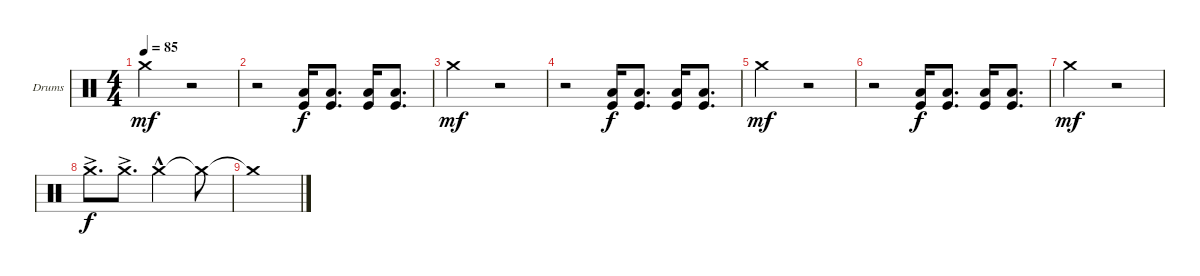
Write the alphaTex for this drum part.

\defaultSystemsLayout 4
\bracketExtendMode groupsimilarinstruments
\firstSystemTrackNameOrientation horizontal
\otherSystemsTrackNameOrientation horizontal
\track ("Drumkit" "Drums") {instrument percussion}
\staff {score}
\articulation defaults
\ts (4 4)
\tempo 85
\clef neutral
\ks c "Crash medium (hit)".2{dy mf}
r.2 |
r.2 ("Low Tom (hit)" "Kick (hit)").16{dy f} ("Low Tom (hit)" "Kick (hit)").8{d} ("Low Tom (hit)" "Kick (hit)").16 ("Low Tom (hit)" "Kick (hit)").8{d} |
"Crash medium (hit)".2{dy mf} r.2 |
r.2 ("Low Tom (hit)" "Kick (hit)").16{dy f} ("Low Tom (hit)" "Kick (hit)").8{d} ("Low Tom (hit)" "Kick (hit)").16 ("Low Tom (hit)" "Kick (hit)").8{d} |
"Crash medium (hit)".2{dy mf} r.2 |
r.2 ("Low Tom (hit)" "Kick (hit)").16{dy f} ("Low Tom (hit)" "Kick (hit)").8{d} ("Low Tom (hit)" "Kick (hit)").16 ("Low Tom (hit)" "Kick (hit)").8{d} |
"Crash medium (hit)".2{dy mf} r.2 |
"Crash medium (hit)"{ac}.8{d dy f} "Crash medium (hit)"{ac}.8{d} "Crash medium (hit)"{hac}.2 "Crash medium (hit)"{t}.8 |
"Crash medium (hit)"{t}.1
